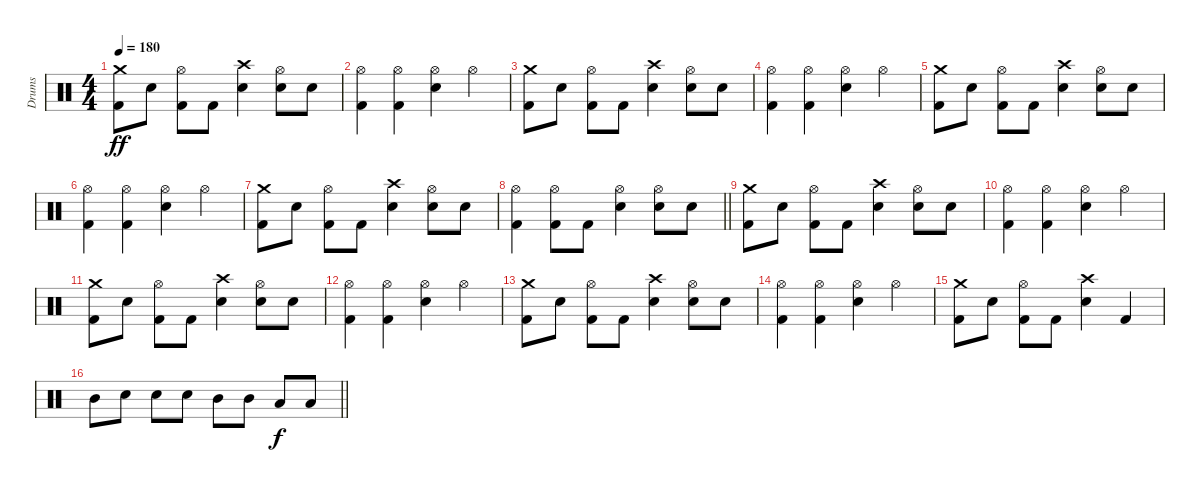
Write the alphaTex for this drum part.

\track ("Drums" "Drums") {instrument percussion}
\staff {score}
\articulation defaults
\ts (4 4)
\section ("" "")
\tempo 180
\clef neutral
\ks c
("Crash medium (hit)" "Kick (hit) 2").8{dy ff} "Electric Snare (hit)".8 ("Hi-Hat (open)" "Kick (hit) 2").8 "Kick (hit) 2".8 ("Crash high (hit)" "Electric Snare (hit)").4 ("Hi-Hat (open)" "Electric Snare (hit)").8 "Electric Snare (hit)".8 |
("Hi-Hat (open)" "Kick (hit) 2").4 ("Hi-Hat (open)" "Kick (hit) 2").4 ("Hi-Hat (open)" "Electric Snare (hit)").4 "Hi-Hat (open)".4 |
("Crash medium (hit)" "Kick (hit) 2").8 "Electric Snare (hit)".8 ("Hi-Hat (open)" "Kick (hit) 2").8 "Kick (hit) 2".8 ("Crash high (hit)" "Electric Snare (hit)").4 ("Hi-Hat (open)" "Electric Snare (hit)").8 "Electric Snare (hit)".8 |
("Hi-Hat (open)" "Kick (hit) 2").4 ("Hi-Hat (open)" "Kick (hit) 2").4 ("Hi-Hat (open)" "Electric Snare (hit)").4 "Hi-Hat (open)".4 |
("Crash medium (hit)" "Kick (hit) 2").8 "Electric Snare (hit)".8 ("Hi-Hat (open)" "Kick (hit) 2").8 "Kick (hit) 2".8 ("Crash high (hit)" "Electric Snare (hit)").4 ("Hi-Hat (open)" "Electric Snare (hit)").8 "Electric Snare (hit)".8 |
("Hi-Hat (open)" "Kick (hit) 2").4 ("Hi-Hat (open)" "Kick (hit) 2").4 ("Hi-Hat (open)" "Electric Snare (hit)").4 "Hi-Hat (open)".4 |
("Crash medium (hit)" "Kick (hit) 2").8 "Electric Snare (hit)".8 ("Hi-Hat (open)" "Kick (hit) 2").8 "Kick (hit) 2".8 ("Crash high (hit)" "Electric Snare (hit)").4 ("Hi-Hat (open)" "Electric Snare (hit)").8 "Electric Snare (hit)".8 |
\barLineRight lightlight
("Hi-Hat (open)" "Kick (hit) 2").4 ("Hi-Hat (open)" "Kick (hit) 2").8 "Kick (hit) 2".8 ("Hi-Hat (open)" "Electric Snare (hit)").4 ("Hi-Hat (open)" "Electric Snare (hit)").8 "Electric Snare (hit)".8 |
("Crash medium (hit)" "Kick (hit) 2").8 "Electric Snare (hit)".8 ("Hi-Hat (open)" "Kick (hit) 2").8 "Kick (hit) 2".8 ("Crash high (hit)" "Electric Snare (hit)").4 ("Hi-Hat (open)" "Electric Snare (hit)").8 "Electric Snare (hit)".8 |
("Hi-Hat (open)" "Kick (hit) 2").4 ("Hi-Hat (open)" "Kick (hit) 2").4 ("Hi-Hat (open)" "Electric Snare (hit)").4 "Hi-Hat (open)".4 |
("Crash medium (hit)" "Kick (hit) 2").8 "Electric Snare (hit)".8 ("Hi-Hat (open)" "Kick (hit) 2").8 "Kick (hit) 2".8 ("Crash high (hit)" "Electric Snare (hit)").4 ("Hi-Hat (open)" "Electric Snare (hit)").8 "Electric Snare (hit)".8 |
("Hi-Hat (open)" "Kick (hit) 2").4 ("Hi-Hat (open)" "Kick (hit) 2").4 ("Hi-Hat (open)" "Electric Snare (hit)").4 "Hi-Hat (open)".4 |
("Crash medium (hit)" "Kick (hit) 2").8 "Electric Snare (hit)".8 ("Hi-Hat (open)" "Kick (hit) 2").8 "Kick (hit) 2".8 ("Crash high (hit)" "Electric Snare (hit)").4 ("Hi-Hat (open)" "Electric Snare (hit)").8 "Electric Snare (hit)".8 |
("Hi-Hat (open)" "Kick (hit) 2").4 ("Hi-Hat (open)" "Kick (hit) 2").4 ("Hi-Hat (open)" "Electric Snare (hit)").4 "Hi-Hat (open)".4 |
("Crash medium (hit)" "Kick (hit) 2").8 "Electric Snare (hit)".8 ("Hi-Hat (open)" "Kick (hit) 2").8 "Kick (hit) 2".8 ("Crash high (hit)" "Electric Snare (hit)").4 "Kick (hit) 2".4 |
\barLineRight lightlight "Mid Tom (hit)".8 "Electric Snare (hit)".8 "Electric Snare (hit)".8 "Electric Snare (hit)".8 "Mid Tom (hit)".8 "Mid Tom (hit)".8 "Low Tom (hit)".8{dy f} "Low Tom (hit)".8
